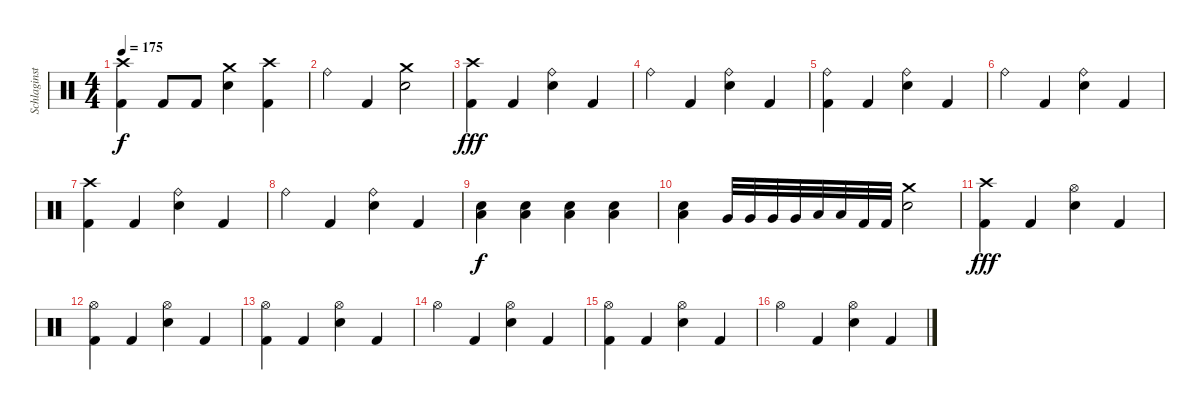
\track ("Schlaginstrumente - Auswahl" "Schlaginst") {instrument percussion}
\staff {score}
\articulation defaults
\ts (4 4)
\tempo 175
\clef neutral
\ks c
("Crash high (hit)" "Kick (hit) 2").4{dy f} "Kick (hit) 2".8 "Kick (hit) 2".8 ("Crash medium (hit)" "Electric Snare (hit)").4 ("Crash high (hit)" "Kick (hit) 2").4 |
"Ride (bell)".4 "Kick (hit) 2".4 ("Electric Snare (hit)" "Crash medium (hit)").2 |
("Crash high (hit)" "Kick (hit) 2").4{dy fff} "Kick (hit) 2".4 ("Ride (bell)" "Electric Snare (hit)").4 "Kick (hit) 2".4 |
"Ride (bell)".4 "Kick (hit) 2".4 ("Ride (bell)" "Electric Snare (hit)").4 "Kick (hit) 2".4 |
("Ride (bell)" "Kick (hit) 2").4 "Kick (hit) 2".4 ("Ride (bell)" "Electric Snare (hit)").4 "Kick (hit) 2".4 |
"Ride (bell)".4 "Kick (hit) 2".4 ("Ride (bell)" "Electric Snare (hit)").4 "Kick (hit) 2".4 |
("Crash high (hit)" "Kick (hit) 2").4 "Kick (hit) 2".4 ("Ride (bell)" "Electric Snare (hit)").4 "Kick (hit) 2".4 |
"Ride (bell)".4 "Kick (hit) 2".4 ("Ride (bell)" "Electric Snare (hit)").4 "Kick (hit) 2".4 |
("Electric Snare (hit)" "Low Floor Tom (hit)").4{dy f} ("Electric Snare (hit)" "Low Floor Tom (hit)").4 ("Electric Snare (hit)" "Low Floor Tom (hit)").4 ("Electric Snare (hit)" "Low Floor Tom (hit)").4 |
("Electric Snare (hit)" "Low Floor Tom (hit)").4 "Very Low Tom (hit)".32 "Very Low Tom (hit)".32 "Very Low Tom (hit)".32 "Very Low Tom (hit)".32 "Low Floor Tom (hit)".32 "Low Floor Tom (hit)".32 "Kick (hit) 2".32 "Kick (hit) 2".32 ("Electric Snare (hit)" "Crash medium (hit)").2 |
("Crash high (hit)" "Kick (hit) 2").4{dy fff} "Kick (hit) 2".4 ("Hi-Hat (open)" "Electric Snare (hit)").4 "Kick (hit) 2".4 |
("Hi-Hat (open)" "Kick (hit) 2").4 "Kick (hit) 2".4 ("Hi-Hat (open)" "Electric Snare (hit)").4 "Kick (hit) 2".4 |
("Hi-Hat (open)" "Kick (hit) 2").4 "Kick (hit) 2".4 ("Hi-Hat (open)" "Electric Snare (hit)").4 "Kick (hit) 2".4 |
"Hi-Hat (open)".4 "Kick (hit) 2".4 ("Hi-Hat (open)" "Electric Snare (hit)").4 "Kick (hit) 2".4 |
("Hi-Hat (open)" "Kick (hit) 2").4 "Kick (hit) 2".4 ("Hi-Hat (open)" "Electric Snare (hit)").4 "Kick (hit) 2".4 |
"Hi-Hat (open)".4 "Kick (hit) 2".4 ("Hi-Hat (open)" "Electric Snare (hit)").4 "Kick (hit) 2".4
